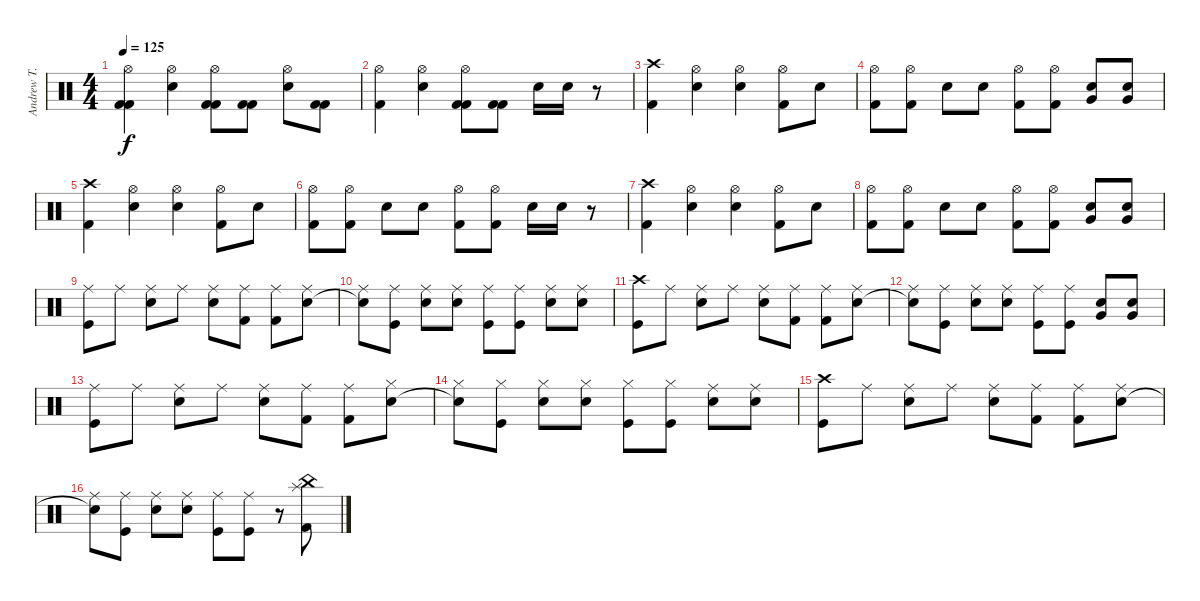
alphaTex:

\track ("Andrew T." "Andrew T.") {instrument percussion}
\staff {score}
\articulation defaults
\ts (4 4)
\tempo 125
\clef neutral
\ks c
("Hi-Hat (open)" "Kick (hit) 2" "Kick (hit) 2").4{dy f} ("Hi-Hat (open)" "Electric Snare (hit)").4 ("Hi-Hat (open)" "Kick (hit) 2" "Kick (hit) 2").8 ("Kick (hit) 2" "Kick (hit) 2").8 ("Electric Snare (hit)" "Hi-Hat (open)").8 ("Kick (hit) 2" "Kick (hit) 2").8 |
("Kick (hit) 2" "Hi-Hat (open)").4 ("Electric Snare (hit)" "Hi-Hat (open)").4 ("Kick (hit) 2" "Hi-Hat (open)" "Kick (hit) 2").8 ("Kick (hit) 2" "Kick (hit) 2").8 "Electric Snare (hit)".16 "Electric Snare (hit)".16 r.8 |
("Crash high (hit)" "Kick (hit) 2").4 ("Electric Snare (hit)" "Hi-Hat (open)").4 ("Electric Snare (hit)" "Hi-Hat (open)").4 ("Hi-Hat (open)" "Kick (hit) 2").8 "Electric Snare (hit)".8 |
("Kick (hit) 2" "Hi-Hat (open)").8 ("Kick (hit) 2" "Hi-Hat (open)").8 "Electric Snare (hit)".8 "Electric Snare (hit)".8 ("Kick (hit) 2" "Hi-Hat (open)").8 ("Kick (hit) 2" "Hi-Hat (open)").8 ("Electric Snare (hit)" "Very Low Tom (hit)").8 ("Electric Snare (hit)" "Very Low Tom (hit)").8 |
("Crash high (hit)" "Kick (hit) 2").4 ("Electric Snare (hit)" "Hi-Hat (open)").4 ("Electric Snare (hit)" "Hi-Hat (open)").4 ("Hi-Hat (open)" "Kick (hit) 2").8 "Electric Snare (hit)".8 |
("Kick (hit) 2" "Hi-Hat (open)").8 ("Kick (hit) 2" "Hi-Hat (open)").8 "Electric Snare (hit)".8 "Electric Snare (hit)".8 ("Kick (hit) 2" "Hi-Hat (open)").8 ("Kick (hit) 2" "Hi-Hat (open)").8 "Electric Snare (hit)".16 "Electric Snare (hit)".16 r.8 |
("Crash high (hit)" "Kick (hit) 2").4 ("Electric Snare (hit)" "Hi-Hat (open)").4 ("Electric Snare (hit)" "Hi-Hat (open)").4 ("Hi-Hat (open)" "Kick (hit) 2").8 "Electric Snare (hit)".8 |
("Kick (hit) 2" "Hi-Hat (open)").8 ("Kick (hit) 2" "Hi-Hat (open)").8 "Electric Snare (hit)".8 "Electric Snare (hit)".8 ("Kick (hit) 2" "Hi-Hat (open)").8 ("Kick (hit) 2" "Hi-Hat (open)").8 ("Electric Snare (hit)" "Very Low Tom (hit)").8 ("Electric Snare (hit)" "Very Low Tom (hit)").8 |
("Ride (middle)" "Kick (hit)").8 "Ride (middle)".8 ("Ride (middle)" "Electric Snare (hit)").8 "Ride (middle)".8 ("Ride (middle)" "Electric Snare (hit)").8 ("Ride (middle)" "Kick (hit) 2").8 ("Ride (middle)" "Kick (hit) 2").8 ("Ride (middle)" "Electric Snare (hit)").8 |
("Ride (middle)" "Electric Snare (hit)"{t}).8 ("Ride (middle)" "Kick (hit)").8 ("Ride (middle)" "Electric Snare (hit)").8 ("Ride (middle)" "Electric Snare (hit)").8 ("Ride (middle)" "Kick (hit)").8 ("Ride (middle)" "Kick (hit)").8 ("Ride (middle)" "Electric Snare (hit)").8 ("Ride (middle)" "Electric Snare (hit)").8 |
("Crash high (hit)" "Kick (hit)").8 "Ride (middle)".8 ("Ride (middle)" "Electric Snare (hit)").8 "Ride (middle)".8 ("Ride (middle)" "Electric Snare (hit)").8 ("Ride (middle)" "Kick (hit) 2").8 ("Ride (middle)" "Kick (hit) 2").8 ("Ride (middle)" "Electric Snare (hit)").8 |
("Ride (middle)" "Electric Snare (hit)"{t}).8 ("Ride (middle)" "Kick (hit)").8 ("Ride (middle)" "Electric Snare (hit)").8 ("Ride (middle)" "Electric Snare (hit)").8 ("Ride (middle)" "Kick (hit)").8 ("Ride (middle)" "Kick (hit)").8 ("Very Low Tom (hit)" "Electric Snare (hit)").8 ("Very Low Tom (hit)" "Electric Snare (hit)").8 |
("Ride (middle)" "Kick (hit)").8 "Ride (middle)".8 ("Ride (middle)" "Electric Snare (hit)").8 "Ride (middle)".8 ("Ride (middle)" "Electric Snare (hit)").8 ("Ride (middle)" "Kick (hit) 2").8 ("Ride (middle)" "Kick (hit) 2").8 ("Hi-Hat (closed)" "Electric Snare (hit)").8 |
("Hi-Hat (closed)" "Electric Snare (hit)"{t}).8 ("Hi-Hat (closed)" "Kick (hit)").8 ("Hi-Hat (closed)" "Electric Snare (hit)").8 ("Hi-Hat (closed)" "Electric Snare (hit)").8 ("Hi-Hat (closed)" "Kick (hit)").8 ("Hi-Hat (closed)" "Kick (hit)").8 ("Ride (middle)" "Electric Snare (hit)").8 ("Ride (middle)" "Electric Snare (hit)").8 |
("Crash high (hit)" "Kick (hit)").8 "Ride (middle)".8 ("Ride (middle)" "Electric Snare (hit)").8 "Ride (middle)".8 ("Ride (middle)" "Electric Snare (hit)").8 ("Ride (middle)" "Kick (hit) 2").8 ("Ride (middle)" "Kick (hit) 2").8 ("Ride (middle)" "Electric Snare (hit)").8 |
("Ride (middle)" "Electric Snare (hit)"{t}).8 ("Ride (middle)" "Kick (hit)").8 ("Ride (middle)" "Electric Snare (hit)").8 ("Ride (middle)" "Electric Snare (hit)").8 ("Ride (middle)" "Kick (hit)").8 ("Ride (middle)" "Kick (hit)").8 r.8 ("China (hit)" "Splash (hit)" "Kick (hit) 2").8
